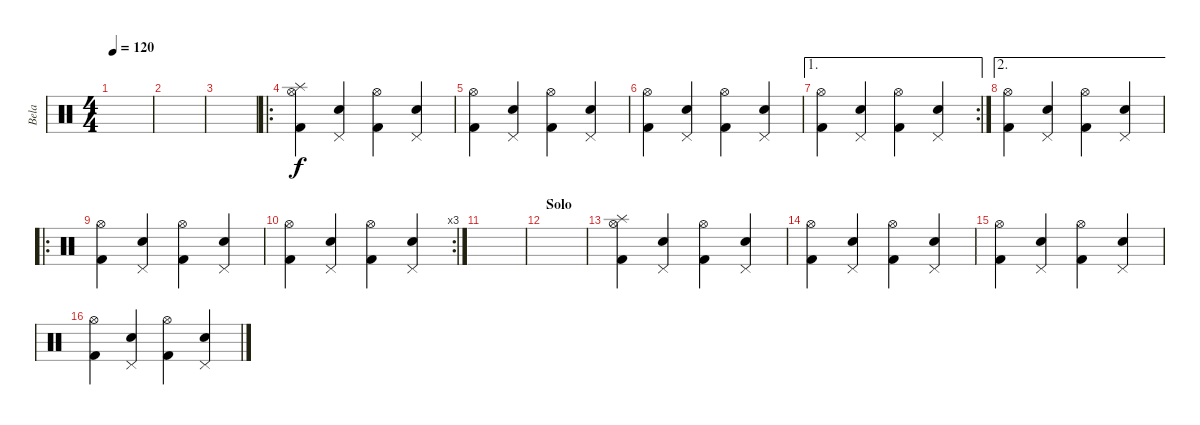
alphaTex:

\track ("Bela" "Bela") {instrument percussion}
\staff {score}
\articulation defaults
\ts (4 4)
\tempo 120
\clef neutral
\ks c
|
|
|
\ro
("Hi-Hat (open)" "Splash (hit)" "Kick (hit) 2").4 ("Pedal Hi-Hat (hit)" "Electric Snare (hit)").4 ("Hi-Hat (open)" "Kick (hit) 2").4 ("Pedal Hi-Hat (hit)" "Electric Snare (hit)").4 |
("Hi-Hat (open)" "Kick (hit) 2").4 ("Pedal Hi-Hat (hit)" "Electric Snare (hit)").4 ("Hi-Hat (open)" "Kick (hit) 2").4 ("Pedal Hi-Hat (hit)" "Electric Snare (hit)").4 |
("Hi-Hat (open)" "Kick (hit) 2").4 ("Pedal Hi-Hat (hit)" "Electric Snare (hit)").4 ("Hi-Hat (open)" "Kick (hit) 2").4 ("Pedal Hi-Hat (hit)" "Electric Snare (hit)").4 |
\ae 1
\rc 2
("Hi-Hat (open)" "Kick (hit) 2").4 ("Pedal Hi-Hat (hit)" "Electric Snare (hit)").4 ("Hi-Hat (open)" "Kick (hit) 2").4 ("Pedal Hi-Hat (hit)" "Electric Snare (hit)").4 |
\ae 2
("Hi-Hat (open)" "Kick (hit) 2").4 ("Pedal Hi-Hat (hit)" "Electric Snare (hit)").4 ("Hi-Hat (open)" "Kick (hit) 2").4 ("Pedal Hi-Hat (hit)" "Electric Snare (hit)").4 |
\ro
("Hi-Hat (open)" "Kick (hit) 2").4 ("Pedal Hi-Hat (hit)" "Electric Snare (hit)").4 ("Hi-Hat (open)" "Kick (hit) 2").4 ("Pedal Hi-Hat (hit)" "Electric Snare (hit)").4 |
\rc 3
("Hi-Hat (open)" "Kick (hit) 2").4 ("Pedal Hi-Hat (hit)" "Electric Snare (hit)").4 ("Hi-Hat (open)" "Kick (hit) 2").4 ("Pedal Hi-Hat (hit)" "Electric Snare (hit)").4 |
|
\section ("" "Solo")
|
("Hi-Hat (open)" "Splash (hit)" "Kick (hit) 2").4 ("Pedal Hi-Hat (hit)" "Electric Snare (hit)").4 ("Hi-Hat (open)" "Kick (hit) 2").4 ("Pedal Hi-Hat (hit)" "Electric Snare (hit)").4 |
("Hi-Hat (open)" "Kick (hit) 2").4 ("Pedal Hi-Hat (hit)" "Electric Snare (hit)").4 ("Hi-Hat (open)" "Kick (hit) 2").4 ("Pedal Hi-Hat (hit)" "Electric Snare (hit)").4 |
("Hi-Hat (open)" "Kick (hit) 2").4 ("Pedal Hi-Hat (hit)" "Electric Snare (hit)").4 ("Hi-Hat (open)" "Kick (hit) 2").4 ("Pedal Hi-Hat (hit)" "Electric Snare (hit)").4 |
("Hi-Hat (open)" "Kick (hit) 2").4 ("Pedal Hi-Hat (hit)" "Electric Snare (hit)").4 ("Hi-Hat (open)" "Kick (hit) 2").4 ("Pedal Hi-Hat (hit)" "Electric Snare (hit)").4
